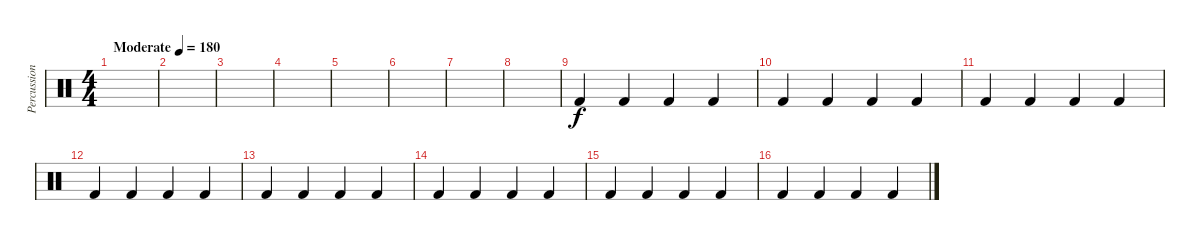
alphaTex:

\track ("Percussion" "Percussion") {instrument percussion bank 177}
\staff {score}
\articulation defaults
\ts (4 4)
\tempo (180 "Moderate")
\clef neutral
\ks c
|
|
|
|
|
|
|
|
"Kick (hit) 2".4 "Kick (hit) 2".4 "Kick (hit) 2".4 "Kick (hit) 2".4 |
"Kick (hit) 2".4 "Kick (hit) 2".4 "Kick (hit) 2".4 "Kick (hit) 2".4 |
"Kick (hit) 2".4 "Kick (hit) 2".4 "Kick (hit) 2".4 "Kick (hit) 2".4 |
"Kick (hit) 2".4 "Kick (hit) 2".4 "Kick (hit) 2".4 "Kick (hit) 2".4 |
"Kick (hit) 2".4 "Kick (hit) 2".4 "Kick (hit) 2".4 "Kick (hit) 2".4 |
"Kick (hit) 2".4 "Kick (hit) 2".4 "Kick (hit) 2".4 "Kick (hit) 2".4 |
"Kick (hit) 2".4 "Kick (hit) 2".4 "Kick (hit) 2".4 "Kick (hit) 2".4 |
"Kick (hit) 2".4 "Kick (hit) 2".4 "Kick (hit) 2".4 "Kick (hit) 2".4
